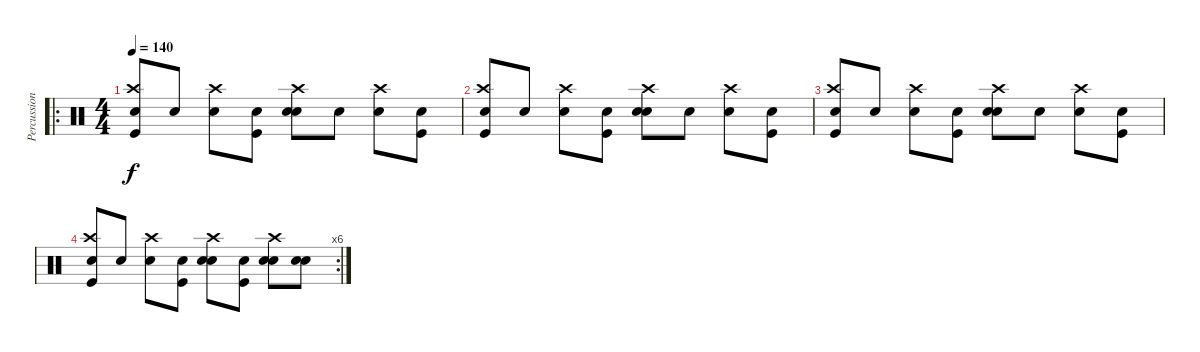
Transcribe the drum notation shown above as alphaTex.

\track ("Percussion" "Percussion") {instrument percussion}
\staff {score}
\articulation defaults
\ro
\ts (4 4)
\tempo 140
\clef neutral
\ks c
("Snare (hit)" "Crash high (hit)" "Kick (hit)").8{dy f} "Snare (hit)".8 ("Snare (hit)" "Crash high (hit)").8 ("Snare (hit)" "Kick (hit)").8 ("Snare (hit)" "Crash high (hit)" "Snare (hit) 2").8 "Snare (hit)".8 ("Snare (hit)" "Crash high (hit)").8 ("Snare (hit)" "Kick (hit)").8 |
("Snare (hit)" "Crash high (hit)" "Kick (hit)").8 "Snare (hit)".8 ("Snare (hit)" "Crash high (hit)").8 ("Snare (hit)" "Kick (hit)").8 ("Snare (hit)" "Crash high (hit)" "Snare (hit) 2").8 "Snare (hit)".8 ("Snare (hit)" "Crash high (hit)").8 ("Snare (hit)" "Kick (hit)").8 |
("Snare (hit)" "Crash high (hit)" "Kick (hit)").8 "Snare (hit)".8 ("Snare (hit)" "Crash high (hit)").8 ("Snare (hit)" "Kick (hit)").8 ("Snare (hit)" "Crash high (hit)" "Snare (hit) 2").8 "Snare (hit)".8 ("Snare (hit)" "Crash high (hit)").8 ("Snare (hit)" "Kick (hit)").8 |
\rc 6
("Snare (hit)" "Crash high (hit)" "Kick (hit)").8 "Snare (hit)".8 ("Snare (hit)" "Crash high (hit)").8 ("Snare (hit)" "Kick (hit)").8 ("Snare (hit)" "Crash high (hit)" "Snare (hit) 2").8 ("Snare (hit)" "Kick (hit)").8 ("Snare (hit)" "Crash high (hit)" "Snare (hit) 2").8 ("Snare (hit)" "Snare (hit) 2").8
